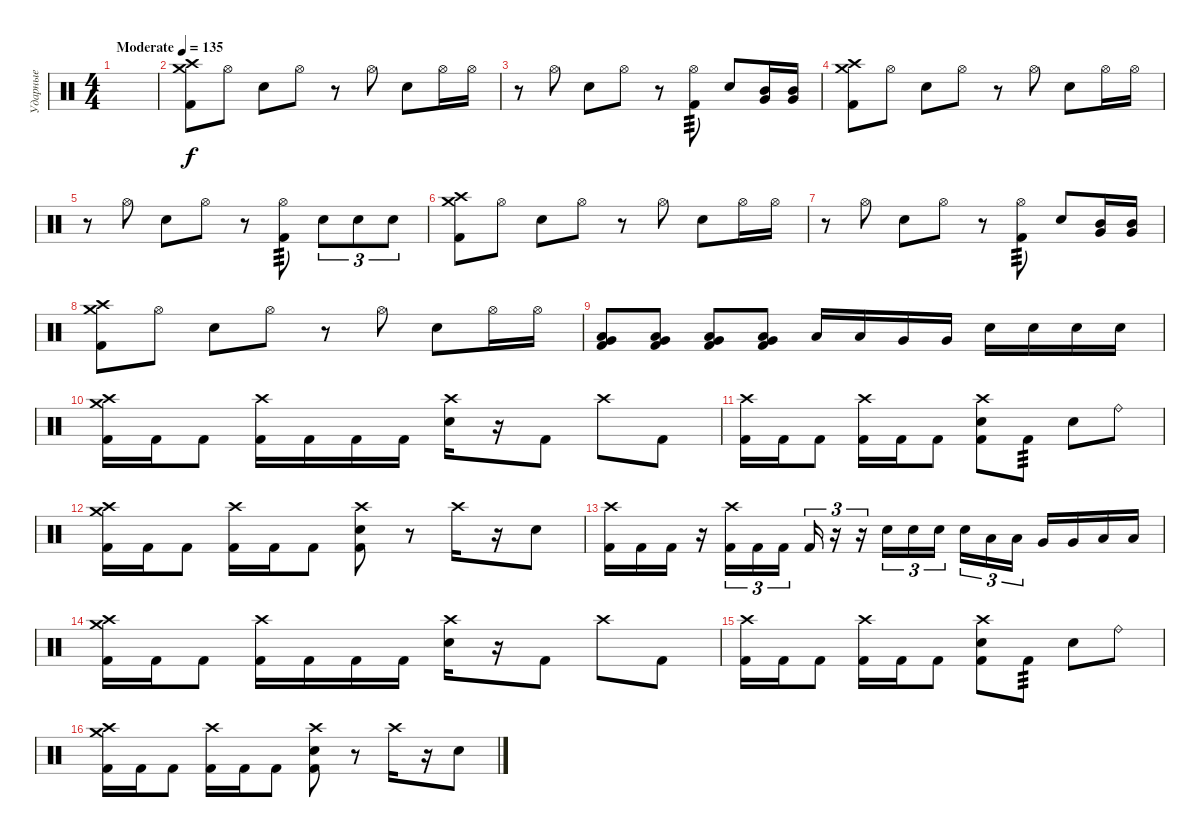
\track ("Ударные" "Ударные") {instrument percussion}
\staff {score}
\articulation defaults
\ts (4 4)
\tempo (135 "Moderate")
\clef neutral
\ks c
|
("Crash high (hit)" "Crash medium (hit)" "Kick (hit) 2").8 "Hi-Hat (open)".8 "Hand Clap (hit)".8 "Hi-Hat (open)".8 r.8 "Hi-Hat (open)".8 "Hand Clap (hit)".8 "Hi-Hat (open)".16 "Hi-Hat (open)".16 |
r.8 "Hi-Hat (open)".8 "Hand Clap (hit)".8 "Hi-Hat (open)".8 r.8 ("Hi-Hat (open)" "Kick (hit) 2").8{tp 3} "Hand Clap (hit)".8 ("Very Low Tom (hit)" "Mid Tom (hit)").16 ("Very Low Tom (hit)" "Mid Tom (hit)").16 |
("Crash high (hit)" "Crash medium (hit)" "Kick (hit) 2").8 "Hi-Hat (open)".8 "Hand Clap (hit)".8 "Hi-Hat (open)".8 r.8 "Hi-Hat (open)".8 "Hand Clap (hit)".8 "Hi-Hat (open)".16 "Hi-Hat (open)".16 |
r.8 "Hi-Hat (open)".8 "Hand Clap (hit)".8 "Hi-Hat (open)".8 r.8 ("Hi-Hat (open)" "Kick (hit) 2").8{tp 3} "Electric Snare (hit)".8{tu (3 2)} "Electric Snare (hit)".8{tu (3 2)} "Electric Snare (hit)".8{tu (3 2)} |
("Crash high (hit)" "Crash medium (hit)" "Kick (hit) 2").8 "Hi-Hat (open)".8 "Hand Clap (hit)".8 "Hi-Hat (open)".8 r.8 "Hi-Hat (open)".8 "Hand Clap (hit)".8 "Hi-Hat (open)".16 "Hi-Hat (open)".16 |
r.8 "Hi-Hat (open)".8 "Hand Clap (hit)".8 "Hi-Hat (open)".8 r.8 ("Hi-Hat (open)" "Kick (hit) 2").8{tp 3} "Hand Clap (hit)".8 ("Very Low Tom (hit)" "Mid Tom (hit)").16 ("Very Low Tom (hit)" "Mid Tom (hit)").16 |
("Crash high (hit)" "Crash medium (hit)" "Kick (hit) 2").8 "Hi-Hat (open)".8 "Hand Clap (hit)".8 "Hi-Hat (open)".8 r.8 "Hi-Hat (open)".8 "Hand Clap (hit)".8 "Hi-Hat (open)".16 "Hi-Hat (open)".16 |
("Kick (hit) 2" "Very Low Tom (hit)" "Low Floor Tom (hit)").8 ("Kick (hit) 2" "Very Low Tom (hit)" "Low Floor Tom (hit)").8 ("Kick (hit) 2" "Very Low Tom (hit)" "Low Floor Tom (hit)").8 ("Kick (hit) 2" "Very Low Tom (hit)" "Low Floor Tom (hit)").8 "Low Floor Tom (hit)".16 "Low Floor Tom (hit)".16 "Very Low Tom (hit)".16 "Very Low Tom (hit)".16 "Snare (hit) 2".16 "Snare (hit) 2".16 "Snare (hit) 2".16 "Snare (hit) 2".16 |
("Crash medium (hit)" "Crash high (hit)" "Kick (hit) 2").16 "Kick (hit) 2".16 "Kick (hit) 2".8 ("Crash high (hit)" "Kick (hit) 2").16 "Kick (hit) 2".16 "Kick (hit) 2".16 "Kick (hit) 2".16 ("Crash high (hit)" "Snare (hit) 2").16 r.16 "Kick (hit) 2".8 "Crash high (hit)".8 "Kick (hit) 2".8 |
("Crash high (hit)" "Kick (hit) 2").16 "Kick (hit) 2".16 "Kick (hit) 2".8 ("Crash high (hit)" "Kick (hit) 2").16 "Kick (hit) 2".16 "Kick (hit) 2".8 ("Crash high (hit)" "Snare (hit) 2" "Kick (hit) 2").8 "Kick (hit) 2".8{tp 3} "Snare (hit) 2".8 "Ride (bell)".8 |
("Crash high (hit)" "Crash medium (hit)" "Kick (hit) 2").16 "Kick (hit) 2".16 "Kick (hit) 2".8 ("Crash high (hit)" "Kick (hit) 2").16 "Kick (hit) 2".16 "Kick (hit) 2".8 ("Crash high (hit)" "Snare (hit) 2" "Kick (hit) 2").8 r.8 "Crash high (hit)".16 r.16 "Electric Snare (hit)".8 |
("Crash high (hit)" "Kick (hit) 2").16 "Kick (hit) 2".16 "Kick (hit) 2".16 r.16 ("Crash high (hit)" "Kick (hit) 2").16{tu (3 2)} "Kick (hit) 2".16{tu (3 2)} "Kick (hit) 2".16{tu (3 2) beam splitsecondary} "Kick (hit) 2".16{tu (3 2)} r.16{tu (3 2)} r.16{tu (3 2)} "Snare (hit) 2".16{tu (3 2)} "Snare (hit) 2".16{tu (3 2)} "Snare (hit) 2".16{tu (3 2) beam splitsecondary} "Snare (hit) 2".16{tu (3 2)} "Low Floor Tom (hit)".16{tu (3 2)} "Low Floor Tom (hit)".16{tu (3 2)} "Very Low Tom (hit)".16 "Very Low Tom (hit)".16 "Low Tom (hit)".16 "Low Tom (hit)".16 |
("Crash medium (hit)" "Crash high (hit)" "Kick (hit) 2").16 "Kick (hit) 2".16 "Kick (hit) 2".8 ("Crash high (hit)" "Kick (hit) 2").16 "Kick (hit) 2".16 "Kick (hit) 2".16 "Kick (hit) 2".16 ("Crash high (hit)" "Snare (hit) 2").16 r.16 "Kick (hit) 2".8 "Crash high (hit)".8 "Kick (hit) 2".8 |
("Crash high (hit)" "Kick (hit) 2").16 "Kick (hit) 2".16 "Kick (hit) 2".8 ("Crash high (hit)" "Kick (hit) 2").16 "Kick (hit) 2".16 "Kick (hit) 2".8 ("Crash high (hit)" "Snare (hit) 2" "Kick (hit) 2").8 "Kick (hit) 2".8{tp 3} "Snare (hit) 2".8 "Ride (bell)".8 |
("Crash high (hit)" "Crash medium (hit)" "Kick (hit) 2").16 "Kick (hit) 2".16 "Kick (hit) 2".8 ("Crash high (hit)" "Kick (hit) 2").16 "Kick (hit) 2".16 "Kick (hit) 2".8 ("Crash high (hit)" "Snare (hit) 2" "Kick (hit) 2").8 r.8 "Crash high (hit)".16 r.16 "Electric Snare (hit)".8
